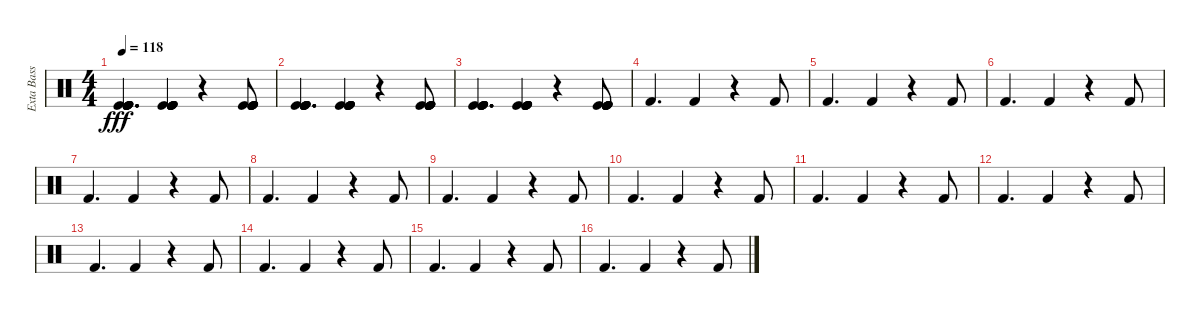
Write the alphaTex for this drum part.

\track ("Exta Bass Boost" "Exta Bass ") {instrument percussion}
\staff {score}
\articulation defaults
\ts (4 4)
\tempo 118
\clef neutral
\ks c
("Kick (hit)" "Kick (hit)" "Kick (hit)" "Kick (hit)" "Kick (hit)" "Kick (hit)").4{d dy fff} ("Kick (hit)" "Kick (hit)" "Kick (hit)" "Kick (hit)" "Kick (hit)" "Kick (hit)").4 r.4 ("Kick (hit)" "Kick (hit)" "Kick (hit)" "Kick (hit)" "Kick (hit)" "Kick (hit)").8 |
("Kick (hit)" "Kick (hit)" "Kick (hit)" "Kick (hit)" "Kick (hit)" "Kick (hit)").4{d} ("Kick (hit)" "Kick (hit)" "Kick (hit)" "Kick (hit)" "Kick (hit)" "Kick (hit)").4 r.4 ("Kick (hit)" "Kick (hit)" "Kick (hit)" "Kick (hit)" "Kick (hit)" "Kick (hit)").8 |
("Kick (hit)" "Kick (hit)" "Kick (hit)" "Kick (hit)" "Kick (hit)" "Kick (hit)").4{d} ("Kick (hit)" "Kick (hit)" "Kick (hit)" "Kick (hit)" "Kick (hit)" "Kick (hit)").4 r.4 ("Kick (hit)" "Kick (hit)" "Kick (hit)" "Kick (hit)" "Kick (hit)" "Kick (hit)").8 |
"Kick (hit) 2".4{d} "Kick (hit) 2".4 r.4 "Kick (hit) 2".8 |
"Kick (hit) 2".4{d} "Kick (hit) 2".4 r.4 "Kick (hit) 2".8 |
"Kick (hit) 2".4{d} "Kick (hit) 2".4 r.4 "Kick (hit) 2".8 |
"Kick (hit) 2".4{d} "Kick (hit) 2".4 r.4 "Kick (hit) 2".8 |
"Kick (hit) 2".4{d} "Kick (hit) 2".4 r.4 "Kick (hit) 2".8 |
"Kick (hit) 2".4{d} "Kick (hit) 2".4 r.4 "Kick (hit) 2".8 |
"Kick (hit) 2".4{d} "Kick (hit) 2".4 r.4 "Kick (hit) 2".8 |
"Kick (hit) 2".4{d} "Kick (hit) 2".4 r.4 "Kick (hit) 2".8 |
"Kick (hit) 2".4{d} "Kick (hit) 2".4 r.4 "Kick (hit) 2".8 |
"Kick (hit) 2".4{d} "Kick (hit) 2".4 r.4 "Kick (hit) 2".8 |
"Kick (hit) 2".4{d} "Kick (hit) 2".4 r.4 "Kick (hit) 2".8 |
"Kick (hit) 2".4{d} "Kick (hit) 2".4 r.4 "Kick (hit) 2".8 |
"Kick (hit) 2".4{d} "Kick (hit) 2".4 r.4 "Kick (hit) 2".8
